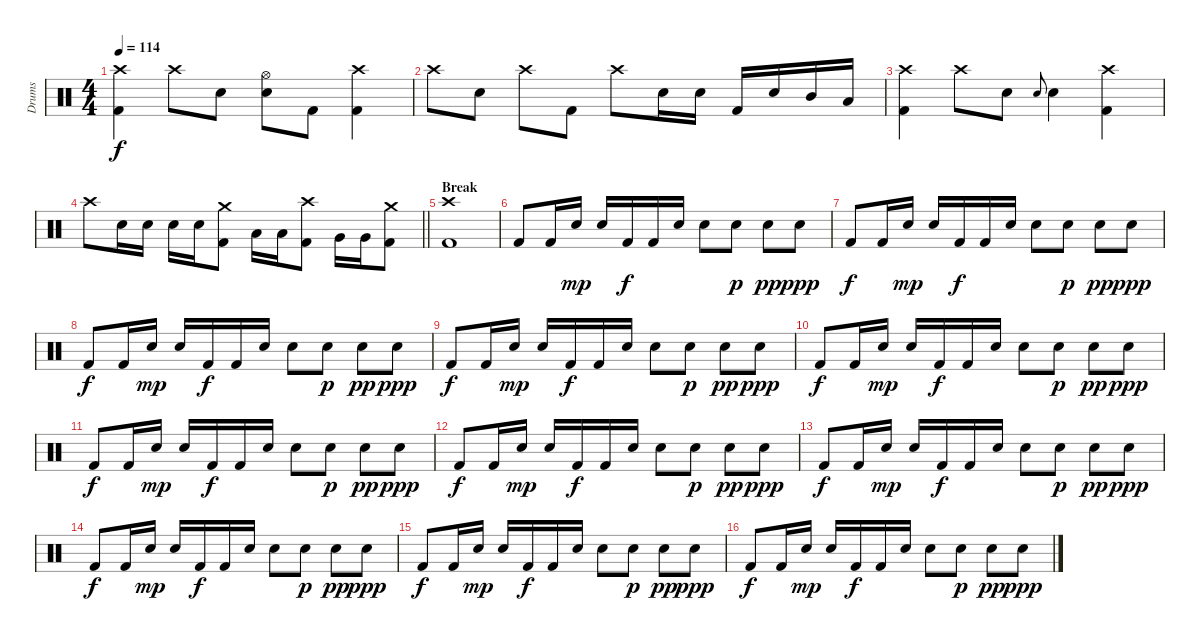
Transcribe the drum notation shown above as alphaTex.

\track ("Drums" "Drums") {instrument percussion}
\staff {score}
\articulation defaults
\ts (4 4)
\tempo 114
\clef neutral
\ks c
("Crash high (hit)" "Kick (hit) 2").4{dy f} "Crash high (hit)".8 "Electric Snare (hit)".8 ("Hi-Hat (open)" "Electric Snare (hit)").8 "Kick (hit) 2".8 ("Crash high (hit)" "Kick (hit) 2").4 |
"Crash high (hit)".8 "Electric Snare (hit)".8 "Crash high (hit)".8 "Kick (hit) 2".8 "Crash high (hit)".8 "Electric Snare (hit)".16 "Electric Snare (hit)".16 "Kick (hit) 2".16 "Electric Snare (hit)".16 "Mid Tom (hit)".16 "Low Tom (hit)".16 |
("Crash high (hit)" "Kick (hit) 2").4 "Crash high (hit)".8 "Electric Snare (hit)".8 "Electric Snare (hit)".8{gr onbeat} "Electric Snare (hit)".4 ("Crash high (hit)" "Kick (hit) 2").4 |
\barLineRight lightlight "Crash high (hit)".8 "Electric Snare (hit)".16 "Electric Snare (hit)".16 "Electric Snare (hit)".16 "Electric Snare (hit)".16
("Crash medium (hit)" "Kick (hit) 2").8 "Low Floor Tom (hit)".16 "Low Floor Tom (hit)".16 ("Crash high (hit)" "Kick (hit) 2").8 "Very Low Tom (hit)".16 "Very Low Tom (hit)".16 ("Crash medium (hit)" "Kick (hit) 2").8 |
\section ("" "Break")
("Crash high (hit)" "Kick (hit) 2").1 |
"Kick (hit) 2".8 "Kick (hit) 2".16 "Electric Snare (hit)".16{dy mp} "Electric Snare (hit)".16 "Kick (hit) 2".16{dy f} "Kick (hit) 2".16 "Electric Snare (hit)".16 "Electric Snare (hit)".8 "Electric Snare (hit)".8{dy p} "Electric Snare (hit)".8{dy pp} "Electric Snare (hit)".8{dy ppp} |
"Kick (hit) 2".8{dy f} "Kick (hit) 2".16 "Electric Snare (hit)".16{dy mp} "Electric Snare (hit)".16 "Kick (hit) 2".16{dy f} "Kick (hit) 2".16 "Electric Snare (hit)".16 "Electric Snare (hit)".8 "Electric Snare (hit)".8{dy p} "Electric Snare (hit)".8{dy pp} "Electric Snare (hit)".8{dy ppp} |
"Kick (hit) 2".8{dy f} "Kick (hit) 2".16 "Electric Snare (hit)".16{dy mp} "Electric Snare (hit)".16 "Kick (hit) 2".16{dy f} "Kick (hit) 2".16 "Electric Snare (hit)".16 "Electric Snare (hit)".8 "Electric Snare (hit)".8{dy p} "Electric Snare (hit)".8{dy pp} "Electric Snare (hit)".8{dy ppp} |
"Kick (hit) 2".8{dy f} "Kick (hit) 2".16 "Electric Snare (hit)".16{dy mp} "Electric Snare (hit)".16 "Kick (hit) 2".16{dy f} "Kick (hit) 2".16 "Electric Snare (hit)".16 "Electric Snare (hit)".8 "Electric Snare (hit)".8{dy p} "Electric Snare (hit)".8{dy pp} "Electric Snare (hit)".8{dy ppp} |
"Kick (hit) 2".8{dy f} "Kick (hit) 2".16 "Electric Snare (hit)".16{dy mp} "Electric Snare (hit)".16 "Kick (hit) 2".16{dy f} "Kick (hit) 2".16 "Electric Snare (hit)".16 "Electric Snare (hit)".8 "Electric Snare (hit)".8{dy p} "Electric Snare (hit)".8{dy pp} "Electric Snare (hit)".8{dy ppp} |
"Kick (hit) 2".8{dy f} "Kick (hit) 2".16 "Electric Snare (hit)".16{dy mp} "Electric Snare (hit)".16 "Kick (hit) 2".16{dy f} "Kick (hit) 2".16 "Electric Snare (hit)".16 "Electric Snare (hit)".8 "Electric Snare (hit)".8{dy p} "Electric Snare (hit)".8{dy pp} "Electric Snare (hit)".8{dy ppp} |
"Kick (hit) 2".8{dy f} "Kick (hit) 2".16 "Electric Snare (hit)".16{dy mp} "Electric Snare (hit)".16 "Kick (hit) 2".16{dy f} "Kick (hit) 2".16 "Electric Snare (hit)".16 "Electric Snare (hit)".8 "Electric Snare (hit)".8{dy p} "Electric Snare (hit)".8{dy pp} "Electric Snare (hit)".8{dy ppp} |
"Kick (hit) 2".8{dy f} "Kick (hit) 2".16 "Electric Snare (hit)".16{dy mp} "Electric Snare (hit)".16 "Kick (hit) 2".16{dy f} "Kick (hit) 2".16 "Electric Snare (hit)".16 "Electric Snare (hit)".8 "Electric Snare (hit)".8{dy p} "Electric Snare (hit)".8{dy pp} "Electric Snare (hit)".8{dy ppp} |
"Kick (hit) 2".8{dy f} "Kick (hit) 2".16 "Electric Snare (hit)".16{dy mp} "Electric Snare (hit)".16 "Kick (hit) 2".16{dy f} "Kick (hit) 2".16 "Electric Snare (hit)".16 "Electric Snare (hit)".8 "Electric Snare (hit)".8{dy p} "Electric Snare (hit)".8{dy pp} "Electric Snare (hit)".8{dy ppp} |
"Kick (hit) 2".8{dy f} "Kick (hit) 2".16 "Electric Snare (hit)".16{dy mp} "Electric Snare (hit)".16 "Kick (hit) 2".16{dy f} "Kick (hit) 2".16 "Electric Snare (hit)".16 "Electric Snare (hit)".8 "Electric Snare (hit)".8{dy p} "Electric Snare (hit)".8{dy pp} "Electric Snare (hit)".8{dy ppp} |
"Kick (hit) 2".8{dy f} "Kick (hit) 2".16 "Electric Snare (hit)".16{dy mp} "Electric Snare (hit)".16 "Kick (hit) 2".16{dy f} "Kick (hit) 2".16 "Electric Snare (hit)".16 "Electric Snare (hit)".8 "Electric Snare (hit)".8{dy p} "Electric Snare (hit)".8{dy pp} "Electric Snare (hit)".8{dy ppp}
